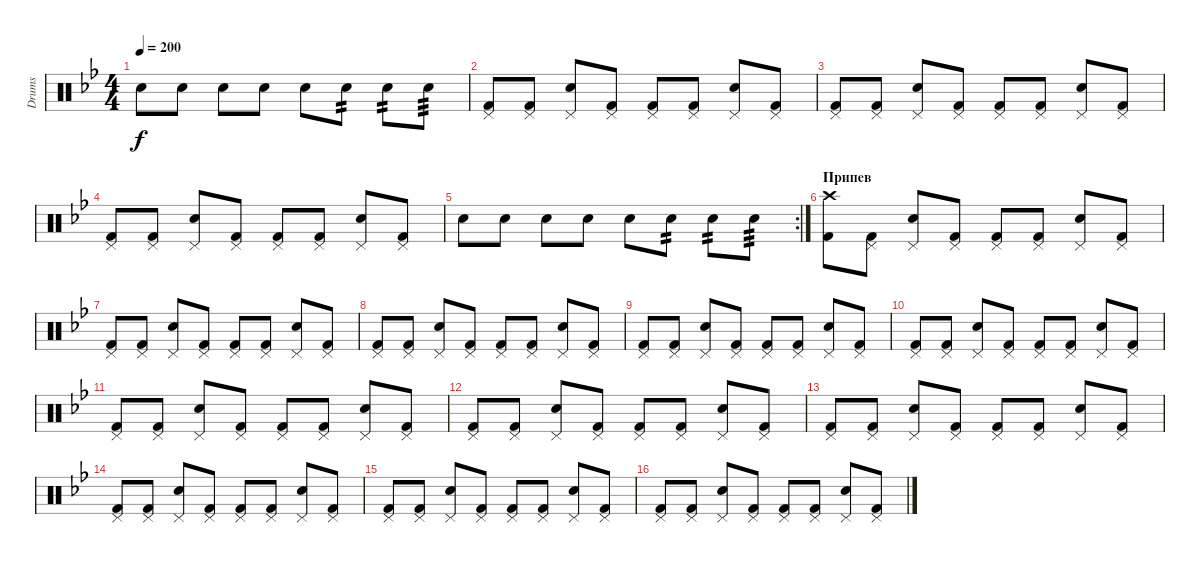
\track ("Drums" "Drums") {instrument percussion}
\staff {score}
\articulation defaults
\ts (4 4)
\tempo 200
\clef neutral
\ks bb "Electric Snare (hit)".8{dy f} "Electric Snare (hit)".8 "Electric Snare (hit)".8 "Electric Snare (hit)".8 "Electric Snare (hit)".8 "Electric Snare (hit)".8{tp 2} "Electric Snare (hit)".8{tp 2} "Electric Snare (hit)".8{tp 3}
|
("Pedal Hi-Hat (hit)" "Kick (hit) 2").8 ("Pedal Hi-Hat (hit)" "Kick (hit) 2").8 ("Pedal Hi-Hat (hit)" "Electric Snare (hit)").8 ("Pedal Hi-Hat (hit)" "Kick (hit) 2").8 ("Pedal Hi-Hat (hit)" "Kick (hit) 2").8 ("Pedal Hi-Hat (hit)" "Kick (hit) 2").8 ("Pedal Hi-Hat (hit)" "Electric Snare (hit)").8 ("Pedal Hi-Hat (hit)" "Kick (hit) 2").8 |
("Pedal Hi-Hat (hit)" "Kick (hit) 2").8 ("Pedal Hi-Hat (hit)" "Kick (hit) 2").8 ("Pedal Hi-Hat (hit)" "Electric Snare (hit)").8 ("Pedal Hi-Hat (hit)" "Kick (hit) 2").8 ("Pedal Hi-Hat (hit)" "Kick (hit) 2").8 ("Pedal Hi-Hat (hit)" "Kick (hit) 2").8 ("Pedal Hi-Hat (hit)" "Electric Snare (hit)").8 ("Pedal Hi-Hat (hit)" "Kick (hit) 2").8 |
("Pedal Hi-Hat (hit)" "Kick (hit) 2").8 ("Pedal Hi-Hat (hit)" "Kick (hit) 2").8 ("Pedal Hi-Hat (hit)" "Electric Snare (hit)").8 ("Pedal Hi-Hat (hit)" "Kick (hit) 2").8 ("Pedal Hi-Hat (hit)" "Kick (hit) 2").8 ("Pedal Hi-Hat (hit)" "Kick (hit) 2").8 ("Pedal Hi-Hat (hit)" "Electric Snare (hit)").8 ("Pedal Hi-Hat (hit)" "Kick (hit) 2").8 |
\rc 2 "Electric Snare (hit)".8 "Electric Snare (hit)".8 "Electric Snare (hit)".8 "Electric Snare (hit)".8 "Electric Snare (hit)".8 "Electric Snare (hit)".8{tp 2} "Electric Snare (hit)".8{tp 2} "Electric Snare (hit)".8{tp 3}
|
\section ("" "Припев")
("Crash high (hit)" "Kick (hit) 2").8 ("Pedal Hi-Hat (hit)" "Kick (hit) 2").8 ("Pedal Hi-Hat (hit)" "Electric Snare (hit)").8 ("Pedal Hi-Hat (hit)" "Kick (hit) 2").8 ("Pedal Hi-Hat (hit)" "Kick (hit) 2").8 ("Pedal Hi-Hat (hit)" "Kick (hit) 2").8 ("Pedal Hi-Hat (hit)" "Electric Snare (hit)").8 ("Pedal Hi-Hat (hit)" "Kick (hit) 2").8 |
("Pedal Hi-Hat (hit)" "Kick (hit) 2").8 ("Pedal Hi-Hat (hit)" "Kick (hit) 2").8 ("Pedal Hi-Hat (hit)" "Electric Snare (hit)").8 ("Pedal Hi-Hat (hit)" "Kick (hit) 2").8 ("Pedal Hi-Hat (hit)" "Kick (hit) 2").8 ("Pedal Hi-Hat (hit)" "Kick (hit) 2").8 ("Pedal Hi-Hat (hit)" "Electric Snare (hit)").8 ("Pedal Hi-Hat (hit)" "Kick (hit) 2").8 |
("Pedal Hi-Hat (hit)" "Kick (hit) 2").8 ("Pedal Hi-Hat (hit)" "Kick (hit) 2").8 ("Pedal Hi-Hat (hit)" "Electric Snare (hit)").8 ("Pedal Hi-Hat (hit)" "Kick (hit) 2").8 ("Pedal Hi-Hat (hit)" "Kick (hit) 2").8 ("Pedal Hi-Hat (hit)" "Kick (hit) 2").8 ("Pedal Hi-Hat (hit)" "Electric Snare (hit)").8 ("Pedal Hi-Hat (hit)" "Kick (hit) 2").8 |
("Pedal Hi-Hat (hit)" "Kick (hit) 2").8 ("Pedal Hi-Hat (hit)" "Kick (hit) 2").8 ("Pedal Hi-Hat (hit)" "Electric Snare (hit)").8 ("Pedal Hi-Hat (hit)" "Kick (hit) 2").8 ("Pedal Hi-Hat (hit)" "Kick (hit) 2").8 ("Pedal Hi-Hat (hit)" "Kick (hit) 2").8 ("Pedal Hi-Hat (hit)" "Electric Snare (hit)").8 ("Pedal Hi-Hat (hit)" "Kick (hit) 2").8 |
("Pedal Hi-Hat (hit)" "Kick (hit) 2").8 ("Pedal Hi-Hat (hit)" "Kick (hit) 2").8 ("Pedal Hi-Hat (hit)" "Electric Snare (hit)").8 ("Pedal Hi-Hat (hit)" "Kick (hit) 2").8 ("Pedal Hi-Hat (hit)" "Kick (hit) 2").8 ("Pedal Hi-Hat (hit)" "Kick (hit) 2").8 ("Pedal Hi-Hat (hit)" "Electric Snare (hit)").8 ("Pedal Hi-Hat (hit)" "Kick (hit) 2").8 |
("Pedal Hi-Hat (hit)" "Kick (hit) 2").8 ("Pedal Hi-Hat (hit)" "Kick (hit) 2").8 ("Pedal Hi-Hat (hit)" "Electric Snare (hit)").8 ("Pedal Hi-Hat (hit)" "Kick (hit) 2").8 ("Pedal Hi-Hat (hit)" "Kick (hit) 2").8 ("Pedal Hi-Hat (hit)" "Kick (hit) 2").8 ("Pedal Hi-Hat (hit)" "Electric Snare (hit)").8 ("Pedal Hi-Hat (hit)" "Kick (hit) 2").8 |
("Pedal Hi-Hat (hit)" "Kick (hit) 2").8 ("Pedal Hi-Hat (hit)" "Kick (hit) 2").8 ("Pedal Hi-Hat (hit)" "Electric Snare (hit)").8 ("Pedal Hi-Hat (hit)" "Kick (hit) 2").8 ("Pedal Hi-Hat (hit)" "Kick (hit) 2").8 ("Pedal Hi-Hat (hit)" "Kick (hit) 2").8 ("Pedal Hi-Hat (hit)" "Electric Snare (hit)").8 ("Pedal Hi-Hat (hit)" "Kick (hit) 2").8 |
("Pedal Hi-Hat (hit)" "Kick (hit) 2").8 ("Pedal Hi-Hat (hit)" "Kick (hit) 2").8 ("Pedal Hi-Hat (hit)" "Electric Snare (hit)").8 ("Pedal Hi-Hat (hit)" "Kick (hit) 2").8 ("Pedal Hi-Hat (hit)" "Kick (hit) 2").8 ("Pedal Hi-Hat (hit)" "Kick (hit) 2").8 ("Pedal Hi-Hat (hit)" "Electric Snare (hit)").8 ("Pedal Hi-Hat (hit)" "Kick (hit) 2").8 |
("Pedal Hi-Hat (hit)" "Kick (hit) 2").8 ("Pedal Hi-Hat (hit)" "Kick (hit) 2").8 ("Pedal Hi-Hat (hit)" "Electric Snare (hit)").8 ("Pedal Hi-Hat (hit)" "Kick (hit) 2").8 ("Pedal Hi-Hat (hit)" "Kick (hit) 2").8 ("Pedal Hi-Hat (hit)" "Kick (hit) 2").8 ("Pedal Hi-Hat (hit)" "Electric Snare (hit)").8 ("Pedal Hi-Hat (hit)" "Kick (hit) 2").8 |
("Pedal Hi-Hat (hit)" "Kick (hit) 2").8 ("Pedal Hi-Hat (hit)" "Kick (hit) 2").8 ("Pedal Hi-Hat (hit)" "Electric Snare (hit)").8 ("Pedal Hi-Hat (hit)" "Kick (hit) 2").8 ("Pedal Hi-Hat (hit)" "Kick (hit) 2").8 ("Pedal Hi-Hat (hit)" "Kick (hit) 2").8 ("Pedal Hi-Hat (hit)" "Electric Snare (hit)").8 ("Pedal Hi-Hat (hit)" "Kick (hit) 2").8 |
("Pedal Hi-Hat (hit)" "Kick (hit) 2").8 ("Pedal Hi-Hat (hit)" "Kick (hit) 2").8 ("Pedal Hi-Hat (hit)" "Electric Snare (hit)").8 ("Pedal Hi-Hat (hit)" "Kick (hit) 2").8 ("Pedal Hi-Hat (hit)" "Kick (hit) 2").8 ("Pedal Hi-Hat (hit)" "Kick (hit) 2").8 ("Pedal Hi-Hat (hit)" "Electric Snare (hit)").8 ("Pedal Hi-Hat (hit)" "Kick (hit) 2").8
